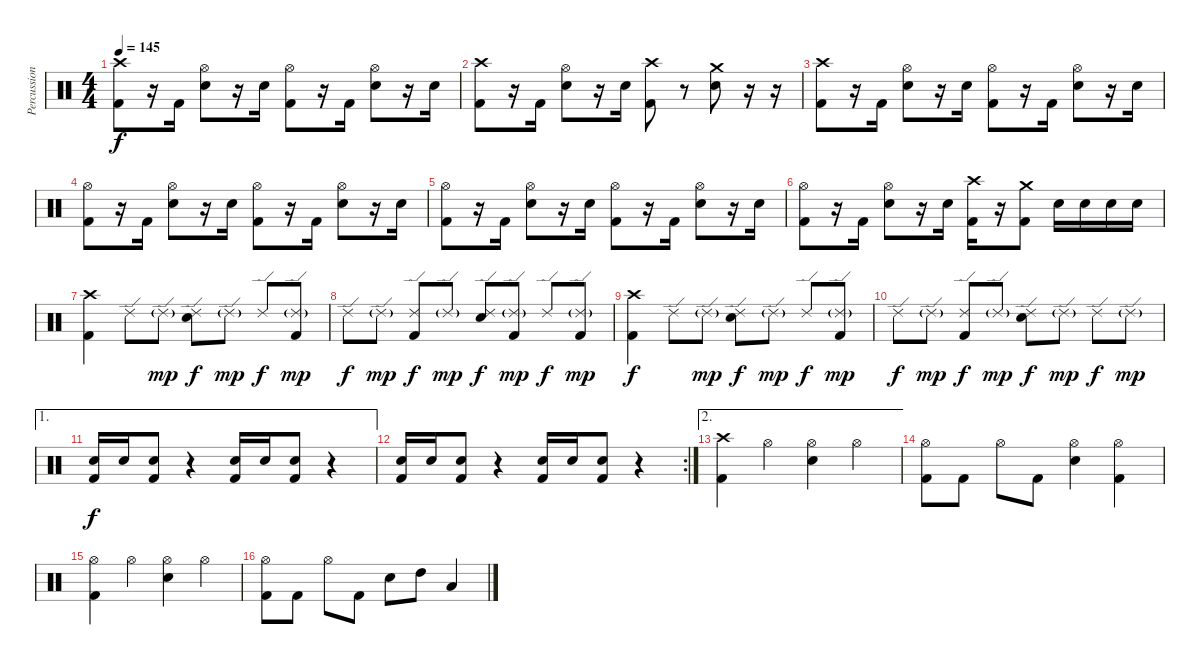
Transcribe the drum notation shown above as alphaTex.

\track ("Percussion" "Percussion") {instrument percussion}
\staff {score}
\articulation defaults
\ts (4 4)
\tempo 145
\clef neutral
\ks c
("Crash high (hit)" "Kick (hit) 2").8{dy f} r.16 "Kick (hit) 2".16 ("Electric Snare (hit)" "Hi-Hat (open)").8 r.16 "Electric Snare (hit)".16 ("Kick (hit) 2" "Hi-Hat (open)").8 r.16 "Kick (hit) 2".16 ("Hi-Hat (open)" "Electric Snare (hit)").8 r.16 "Electric Snare (hit)".16 |
("Crash high (hit)" "Kick (hit) 2").8 r.16 "Kick (hit) 2".16 ("Electric Snare (hit)" "Hi-Hat (open)").8 r.16 "Electric Snare (hit)".16 ("Kick (hit) 2" "Crash high (hit)").8 r.8 ("Crash medium (hit)" "Electric Snare (hit)").8 r.16 r.16 |
("Crash high (hit)" "Kick (hit) 2").8 r.16 "Kick (hit) 2".16 ("Electric Snare (hit)" "Hi-Hat (open)").8 r.16 "Electric Snare (hit)".16 ("Kick (hit) 2" "Hi-Hat (open)").8 r.16 "Kick (hit) 2".16 ("Hi-Hat (open)" "Electric Snare (hit)").8 r.16 "Electric Snare (hit)".16 |
("Hi-Hat (open)" "Kick (hit) 2").8 r.16 "Kick (hit) 2".16 ("Electric Snare (hit)" "Hi-Hat (open)").8 r.16 "Electric Snare (hit)".16 ("Kick (hit) 2" "Hi-Hat (open)").8 r.16 "Kick (hit) 2".16 ("Hi-Hat (open)" "Electric Snare (hit)").8 r.16 "Electric Snare (hit)".16 |
("Hi-Hat (open)" "Kick (hit) 2").8 r.16 "Kick (hit) 2".16 ("Electric Snare (hit)" "Hi-Hat (open)").8 r.16 "Electric Snare (hit)".16 ("Kick (hit) 2" "Hi-Hat (open)").8 r.16 "Kick (hit) 2".16 ("Hi-Hat (open)" "Electric Snare (hit)").8 r.16 "Electric Snare (hit)".16 |
("Hi-Hat (open)" "Kick (hit) 2").8 r.16 "Kick (hit) 2".16 ("Electric Snare (hit)" "Hi-Hat (open)").8 r.16 "Electric Snare (hit)".16 ("Kick (hit) 2" "Crash high (hit)").16 r.16 ("Kick (hit) 2" "Crash medium (hit)").8 "Electric Snare (hit)".16 "Electric Snare (hit)".16 "Electric Snare (hit)".16 "Electric Snare (hit)".16 |
("Kick (hit) 2" "Crash high (hit)").4 "Ride (edge) 2".8 "Ride (edge) 2"{g}.8{dy mp} ("Electric Snare (hit)" "Ride (edge) 2").8{dy f} "Ride (edge) 2"{g}.8{dy mp} "Ride (edge) 2".8{dy f} ("Kick (hit) 2" "Ride (edge) 2"{g}).8{dy mp} |
"Ride (edge) 2".8{dy f} "Ride (edge) 2"{g}.8{dy mp} ("Kick (hit) 2" "Ride (edge) 2").8{dy f} "Ride (edge) 2"{g}.8{dy mp} ("Electric Snare (hit)" "Ride (edge) 2").8{dy f} ("Kick (hit) 2" "Ride (edge) 2"{g}).8{dy mp} "Ride (edge) 2".8{dy f} ("Kick (hit) 2" "Ride (edge) 2"{g}).8{dy mp} |
("Kick (hit) 2" "Crash high (hit)").4{dy f} "Ride (edge) 2".8 "Ride (edge) 2"{g}.8{dy mp} ("Electric Snare (hit)" "Ride (edge) 2").8{dy f} "Ride (edge) 2"{g}.8{dy mp} "Ride (edge) 2".8{dy f} ("Kick (hit) 2" "Ride (edge) 2"{g}).8{dy mp} |
"Ride (edge) 2".8{dy f} "Ride (edge) 2"{g}.8{dy mp} ("Kick (hit) 2" "Ride (edge) 2").8{dy f} "Ride (edge) 2"{g}.8{dy mp} ("Electric Snare (hit)" "Ride (edge) 2").8{dy f} "Ride (edge) 2"{g}.8{dy mp} "Ride (edge) 2".8{dy f} "Ride (edge) 2"{g}.8{dy mp} |
\ae 1
("Electric Snare (hit)" "Kick (hit) 2").16{dy f} "Electric Snare (hit)".16 ("Electric Snare (hit)" "Kick (hit) 2").8 r.4 ("Electric Snare (hit)" "Kick (hit) 2").16 "Electric Snare (hit)".16 ("Electric Snare (hit)" "Kick (hit) 2").8 r.4 |
\rc 2
("Electric Snare (hit)" "Kick (hit) 2").16 "Electric Snare (hit)".16 ("Electric Snare (hit)" "Kick (hit) 2").8 r.4 ("Electric Snare (hit)" "Kick (hit) 2").16 "Electric Snare (hit)".16 ("Electric Snare (hit)" "Kick (hit) 2").8 r.4 |
\ae 2
("Kick (hit) 2" "Crash high (hit)").4 "Hi-Hat (open)".4 ("Electric Snare (hit)" "Hi-Hat (open)").4 "Hi-Hat (open)".4 |
("Kick (hit) 2" "Hi-Hat (open)").8 "Kick (hit) 2".8 "Hi-Hat (open)".8 "Kick (hit) 2".8 ("Electric Snare (hit)" "Hi-Hat (open)").4 ("Kick (hit) 2" "Hi-Hat (open)").4 |
("Kick (hit) 2" "Hi-Hat (open)").4 "Hi-Hat (open)".4 ("Electric Snare (hit)" "Hi-Hat (open)").4 "Hi-Hat (open)".4 |
("Kick (hit) 2" "Hi-Hat (open)").8 "Kick (hit) 2".8 "Hi-Hat (open)".8 "Kick (hit) 2".8 "Electric Snare (hit)".8 "High Tom (hit)".8 "Low Tom (hit)".4
